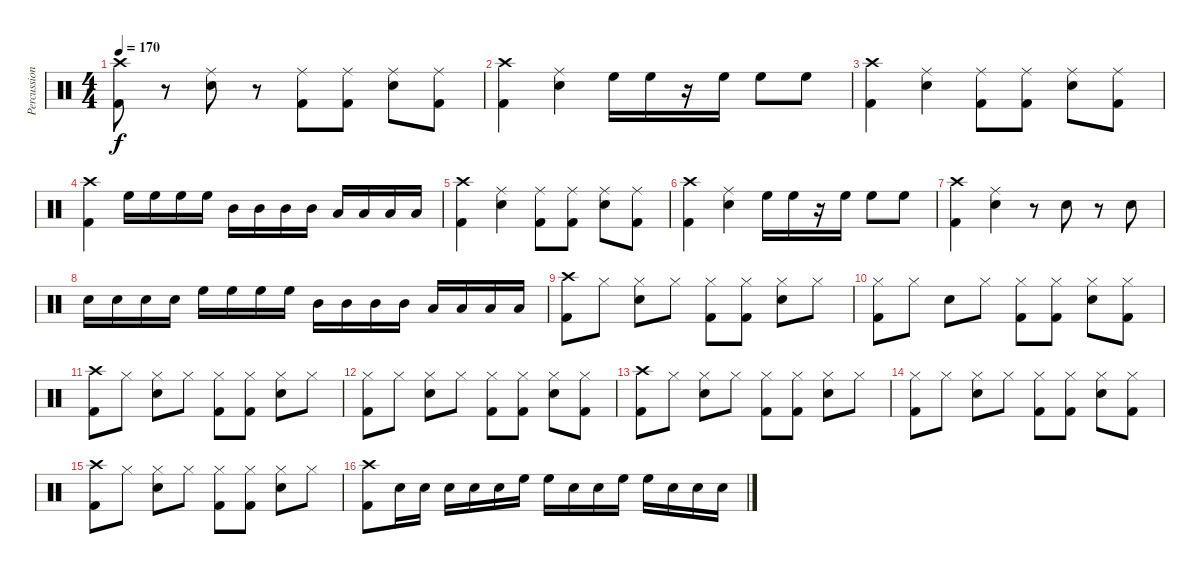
\track ("Percussions" "Percussion") {instrument percussion}
\staff {score}
\articulation defaults
\ts (4 4)
\tempo 170
\clef neutral
\ks c
("Kick (hit) 2" "Crash high (hit)").8{dy f} r.8 ("Ride (middle)" "Snare (hit) 2").8 r.8 ("Ride (middle)" "Kick (hit) 2").8 ("Ride (middle)" "Kick (hit) 2").8 ("Ride (middle)" "Snare (hit) 2").8 ("Ride (middle)" "Kick (hit) 2").8 |
("Kick (hit) 2" "Crash high (hit)").4 ("Snare (hit) 2" "Ride (middle)").4 "High Floor Tom (hit)".16 "High Floor Tom (hit)".16 r.16 "High Floor Tom (hit)".16 "High Floor Tom (hit)".8 "High Floor Tom (hit)".8 |
("Kick (hit) 2" "Crash high (hit)").4 ("Ride (middle)" "Snare (hit) 2").4 ("Kick (hit) 2" "Ride (middle)").8 ("Kick (hit) 2" "Ride (middle)").8 ("Snare (hit) 2" "Ride (middle)").8 ("Kick (hit) 2" "Ride (middle)").8 |
("Crash high (hit)" "Kick (hit) 2").4 "High Floor Tom (hit)".16 "High Floor Tom (hit)".16 "High Floor Tom (hit)".16 "High Floor Tom (hit)".16 "Mid Tom (hit)".16 "Mid Tom (hit)".16 "Mid Tom (hit)".16 "Mid Tom (hit)".16 "Low Floor Tom (hit)".16 "Low Floor Tom (hit)".16 "Low Floor Tom (hit)".16 "Low Floor Tom (hit)".16 |
("Kick (hit) 2" "Crash high (hit)").4 ("Ride (middle)" "Snare (hit) 2").4 ("Kick (hit) 2" "Ride (middle)").8 ("Kick (hit) 2" "Ride (middle)").8 ("Snare (hit) 2" "Ride (middle)").8 ("Kick (hit) 2" "Ride (middle)").8 |
("Crash high (hit)" "Kick (hit) 2").4 ("Ride (middle)" "Snare (hit) 2").4 "High Floor Tom (hit)".16 "High Floor Tom (hit)".16 r.16 "High Floor Tom (hit)".16 "High Floor Tom (hit)".8 "High Floor Tom (hit)".8 |
("Kick (hit) 2" "Crash high (hit)").4 ("Ride (middle)" "Snare (hit) 2").4 r.8 "Snare (hit) 2".8 r.8 "Snare (hit) 2".8 |
"Snare (hit) 2".16 "Snare (hit) 2".16 "Snare (hit) 2".16 "Snare (hit) 2".16 "High Floor Tom (hit)".16 "High Floor Tom (hit)".16 "High Floor Tom (hit)".16 "High Floor Tom (hit)".16 "Mid Tom (hit)".16 "Mid Tom (hit)".16 "Mid Tom (hit)".16 "Mid Tom (hit)".16 "Low Floor Tom (hit)".16 "Low Floor Tom (hit)".16 "Low Floor Tom (hit)".16 "Low Floor Tom (hit)".16 |
("Crash high (hit)" "Kick (hit) 2").8 "Hi-Hat (closed)".8 ("Hi-Hat (closed)" "Snare (hit) 2").8 "Hi-Hat (closed)".8 ("Hi-Hat (closed)" "Kick (hit) 2").8 ("Hi-Hat (closed)" "Kick (hit) 2").8 ("Hi-Hat (closed)" "Snare (hit) 2").8 "Hi-Hat (closed)".8 |
("Kick (hit) 2" "Hi-Hat (closed)").8 "Hi-Hat (closed)".8 "Snare (hit) 2".8 "Hi-Hat (closed)".8 ("Kick (hit) 2" "Hi-Hat (closed)").8 ("Kick (hit) 2" "Hi-Hat (closed)").8 ("Snare (hit) 2" "Hi-Hat (closed)").8 ("Kick (hit) 2" "Hi-Hat (closed)").8 |
("Kick (hit) 2" "Crash high (hit)").8 "Hi-Hat (closed)".8 ("Snare (hit) 2" "Hi-Hat (closed)").8 "Hi-Hat (closed)".8 ("Kick (hit) 2" "Hi-Hat (closed)").8 ("Kick (hit) 2" "Hi-Hat (closed)").8 ("Snare (hit) 2" "Hi-Hat (closed)").8 "Hi-Hat (closed)".8 |
("Kick (hit) 2" "Hi-Hat (closed)").8 "Hi-Hat (closed)".8 ("Snare (hit) 2" "Hi-Hat (closed)").8 "Hi-Hat (closed)".8 ("Kick (hit) 2" "Hi-Hat (closed)").8 ("Kick (hit) 2" "Hi-Hat (closed)").8 ("Snare (hit) 2" "Hi-Hat (closed)").8 ("Kick (hit) 2" "Hi-Hat (closed)").8 |
("Kick (hit) 2" "Crash high (hit)").8 "Hi-Hat (closed)".8 ("Snare (hit) 2" "Hi-Hat (closed)").8 "Hi-Hat (closed)".8 ("Kick (hit) 2" "Hi-Hat (closed)").8 ("Kick (hit) 2" "Hi-Hat (closed)").8 ("Snare (hit) 2" "Hi-Hat (closed)").8 "Hi-Hat (closed)".8 |
("Kick (hit) 2" "Hi-Hat (closed)").8 "Hi-Hat (closed)".8 ("Snare (hit) 2" "Hi-Hat (closed)").8 "Hi-Hat (closed)".8 ("Kick (hit) 2" "Hi-Hat (closed)").8 ("Kick (hit) 2" "Hi-Hat (closed)").8 ("Snare (hit) 2" "Hi-Hat (closed)").8 ("Kick (hit) 2" "Hi-Hat (closed)").8 |
("Kick (hit) 2" "Crash high (hit)").8 "Hi-Hat (closed)".8 ("Snare (hit) 2" "Hi-Hat (closed)").8 "Hi-Hat (closed)".8 ("Kick (hit) 2" "Hi-Hat (closed)").8 ("Kick (hit) 2" "Hi-Hat (closed)").8 ("Snare (hit) 2" "Hi-Hat (closed)").8 "Hi-Hat (closed)".8 |
("Crash high (hit)" "Kick (hit) 2").8 "Snare (hit) 2".16 "Snare (hit) 2".16 "Snare (hit) 2".16 "Snare (hit) 2".16 "Snare (hit) 2".16 "High Floor Tom (hit)".16 "High Floor Tom (hit)".16 "Snare (hit) 2".16 "Snare (hit) 2".16 "High Floor Tom (hit)".16 "High Floor Tom (hit)".16 "Snare (hit) 2".16 "Snare (hit) 2".16 "Snare (hit) 2".16
